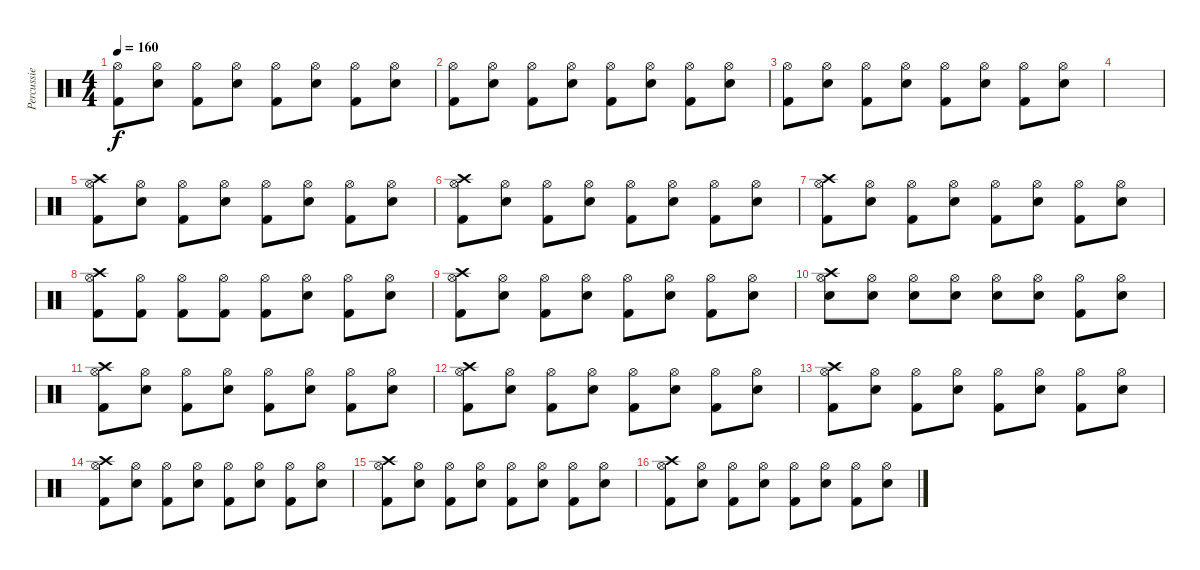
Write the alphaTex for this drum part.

\track ("Percussie" "Percussie") {instrument percussion}
\staff {score}
\articulation defaults
\ts (4 4)
\tempo 160
\clef neutral
\ks c
("Kick (hit) 2" "Hi-Hat (open)").8{dy f} ("Snare (hit) 2" "Hi-Hat (open)").8 ("Kick (hit) 2" "Hi-Hat (open)").8 ("Snare (hit) 2" "Hi-Hat (open)").8 ("Kick (hit) 2" "Hi-Hat (open)").8 ("Snare (hit) 2" "Hi-Hat (open)").8 ("Kick (hit) 2" "Hi-Hat (open)").8 ("Snare (hit) 2" "Hi-Hat (open)").8 |
("Kick (hit) 2" "Hi-Hat (open)").8 ("Snare (hit) 2" "Hi-Hat (open)").8 ("Kick (hit) 2" "Hi-Hat (open)").8 ("Snare (hit) 2" "Hi-Hat (open)").8 ("Kick (hit) 2" "Hi-Hat (open)").8 ("Snare (hit) 2" "Hi-Hat (open)").8 ("Kick (hit) 2" "Hi-Hat (open)").8 ("Snare (hit) 2" "Hi-Hat (open)").8 |
("Kick (hit) 2" "Hi-Hat (open)").8 ("Snare (hit) 2" "Hi-Hat (open)").8 ("Kick (hit) 2" "Hi-Hat (open)").8 ("Snare (hit) 2" "Hi-Hat (open)").8 ("Kick (hit) 2" "Hi-Hat (open)").8 ("Snare (hit) 2" "Hi-Hat (open)").8 ("Kick (hit) 2" "Hi-Hat (open)").8 ("Snare (hit) 2" "Hi-Hat (open)").8 |
|
("Kick (hit) 2" "Crash high (hit)" "Hi-Hat (open)").8 ("Snare (hit) 2" "Hi-Hat (open)").8 ("Kick (hit) 2" "Hi-Hat (open)").8 ("Snare (hit) 2" "Hi-Hat (open)").8 ("Kick (hit) 2" "Hi-Hat (open)").8 ("Snare (hit) 2" "Hi-Hat (open)").8 ("Kick (hit) 2" "Hi-Hat (open)").8 ("Snare (hit) 2" "Hi-Hat (open)").8 |
("Kick (hit) 2" "Crash high (hit)" "Hi-Hat (open)").8 ("Snare (hit) 2" "Hi-Hat (open)").8 ("Kick (hit) 2" "Hi-Hat (open)").8 ("Snare (hit) 2" "Hi-Hat (open)").8 ("Kick (hit) 2" "Hi-Hat (open)").8 ("Snare (hit) 2" "Hi-Hat (open)").8 ("Kick (hit) 2" "Hi-Hat (open)").8 ("Snare (hit) 2" "Hi-Hat (open)").8 |
("Kick (hit) 2" "Crash high (hit)" "Hi-Hat (open)").8 ("Snare (hit) 2" "Hi-Hat (open)").8 ("Kick (hit) 2" "Hi-Hat (open)").8 ("Snare (hit) 2" "Hi-Hat (open)").8 ("Kick (hit) 2" "Hi-Hat (open)").8 ("Snare (hit) 2" "Hi-Hat (open)").8 ("Kick (hit) 2" "Hi-Hat (open)").8 ("Snare (hit) 2" "Hi-Hat (open)").8 |
("Kick (hit) 2" "Crash high (hit)" "Hi-Hat (open)").8 ("Kick (hit) 2" "Hi-Hat (open)").8 ("Kick (hit) 2" "Hi-Hat (open)").8 ("Kick (hit) 2" "Hi-Hat (open)").8 ("Kick (hit) 2" "Hi-Hat (open)").8 ("Snare (hit) 2" "Hi-Hat (open)").8 ("Kick (hit) 2" "Hi-Hat (open)").8 ("Snare (hit) 2" "Hi-Hat (open)").8 |
("Kick (hit) 2" "Crash high (hit)" "Hi-Hat (open)").8 ("Snare (hit) 2" "Hi-Hat (open)").8 ("Kick (hit) 2" "Hi-Hat (open)").8 ("Snare (hit) 2" "Hi-Hat (open)").8 ("Kick (hit) 2" "Hi-Hat (open)").8 ("Snare (hit) 2" "Hi-Hat (open)").8 ("Kick (hit) 2" "Hi-Hat (open)").8 ("Snare (hit) 2" "Hi-Hat (open)").8 |
("Snare (hit) 2" "Crash high (hit)" "Hi-Hat (open)").8 ("Snare (hit) 2" "Hi-Hat (open)").8 ("Snare (hit) 2" "Hi-Hat (open)").8 ("Snare (hit) 2" "Hi-Hat (open)").8 ("Snare (hit) 2" "Hi-Hat (open)").8 ("Snare (hit) 2" "Hi-Hat (open)").8 ("Kick (hit) 2" "Hi-Hat (open)").8 ("Snare (hit) 2" "Hi-Hat (open)").8 |
("Kick (hit) 2" "Crash high (hit)" "Hi-Hat (open)").8 ("Snare (hit) 2" "Hi-Hat (open)").8 ("Kick (hit) 2" "Hi-Hat (open)").8 ("Snare (hit) 2" "Hi-Hat (open)").8 ("Kick (hit) 2" "Hi-Hat (open)").8 ("Snare (hit) 2" "Hi-Hat (open)").8 ("Kick (hit) 2" "Hi-Hat (open)").8 ("Snare (hit) 2" "Hi-Hat (open)").8 |
("Kick (hit) 2" "Crash high (hit)" "Hi-Hat (open)").8 ("Snare (hit) 2" "Hi-Hat (open)").8 ("Kick (hit) 2" "Hi-Hat (open)").8 ("Snare (hit) 2" "Hi-Hat (open)").8 ("Kick (hit) 2" "Hi-Hat (open)").8 ("Snare (hit) 2" "Hi-Hat (open)").8 ("Kick (hit) 2" "Hi-Hat (open)").8 ("Snare (hit) 2" "Hi-Hat (open)").8 |
("Kick (hit) 2" "Crash high (hit)" "Hi-Hat (open)").8 ("Snare (hit) 2" "Hi-Hat (open)").8 ("Kick (hit) 2" "Hi-Hat (open)").8 ("Snare (hit) 2" "Hi-Hat (open)").8 ("Kick (hit) 2" "Hi-Hat (open)").8 ("Snare (hit) 2" "Hi-Hat (open)").8 ("Kick (hit) 2" "Hi-Hat (open)").8 ("Snare (hit) 2" "Hi-Hat (open)").8 |
("Kick (hit) 2" "Crash high (hit)" "Hi-Hat (open)").8 ("Snare (hit) 2" "Hi-Hat (open)").8 ("Kick (hit) 2" "Hi-Hat (open)").8 ("Snare (hit) 2" "Hi-Hat (open)").8 ("Kick (hit) 2" "Hi-Hat (open)").8 ("Snare (hit) 2" "Hi-Hat (open)").8 ("Kick (hit) 2" "Hi-Hat (open)").8 ("Snare (hit) 2" "Hi-Hat (open)").8 |
("Kick (hit) 2" "Crash high (hit)" "Hi-Hat (open)").8 ("Snare (hit) 2" "Hi-Hat (open)").8 ("Kick (hit) 2" "Hi-Hat (open)").8 ("Snare (hit) 2" "Hi-Hat (open)").8 ("Kick (hit) 2" "Hi-Hat (open)").8 ("Snare (hit) 2" "Hi-Hat (open)").8 ("Kick (hit) 2" "Hi-Hat (open)").8 ("Snare (hit) 2" "Hi-Hat (open)").8 |
("Kick (hit) 2" "Crash high (hit)" "Hi-Hat (open)").8 ("Snare (hit) 2" "Hi-Hat (open)").8 ("Kick (hit) 2" "Hi-Hat (open)").8 ("Snare (hit) 2" "Hi-Hat (open)").8 ("Kick (hit) 2" "Hi-Hat (open)").8 ("Snare (hit) 2" "Hi-Hat (open)").8 ("Kick (hit) 2" "Hi-Hat (open)").8 ("Snare (hit) 2" "Hi-Hat (open)").8
